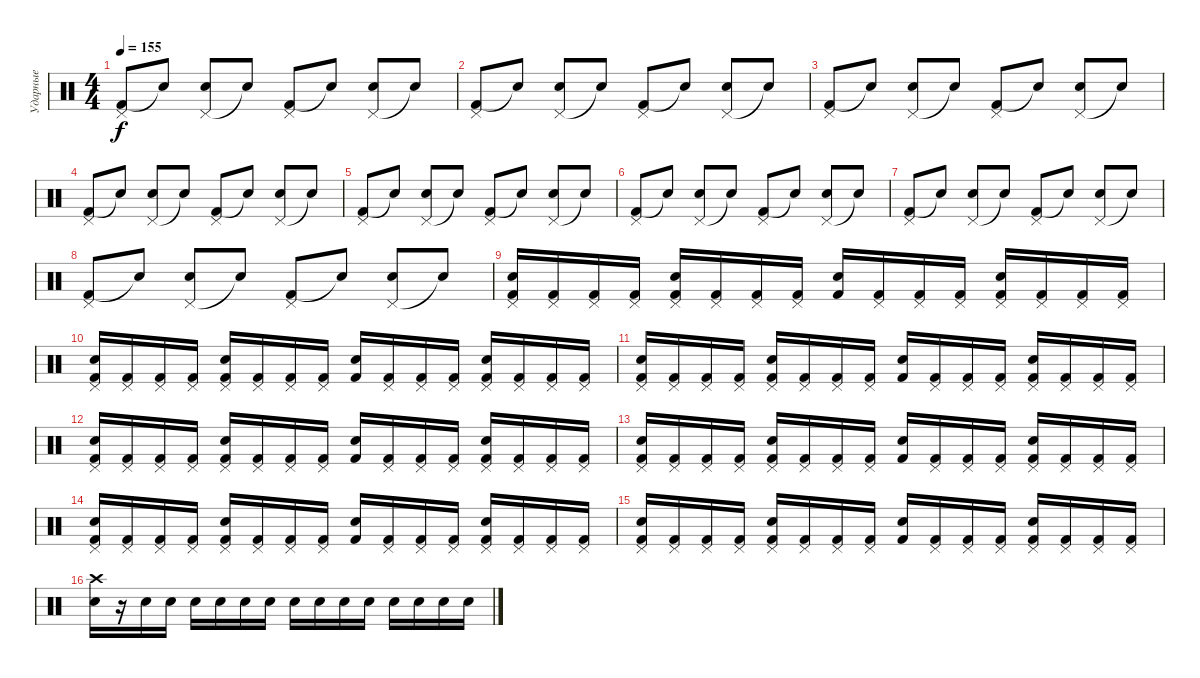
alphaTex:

\track ("Ударные" "Ударные") {instrument percussion}
\staff {score}
\articulation defaults
\ts (4 4)
\tempo 155
\clef neutral
\ks c
("Kick (hit) 2" "Pedal Hi-Hat (hit)").8{dy f} "Snare (hit)"{t}.8 ("Pedal Hi-Hat (hit)" "Snare (hit) 2").8 "Snare (hit)"{t}.8 ("Kick (hit) 2" "Pedal Hi-Hat (hit)").8 "Snare (hit)"{t}.8 ("Pedal Hi-Hat (hit)" "Snare (hit) 2").8 "Snare (hit)"{t}.8 |
("Kick (hit) 2" "Pedal Hi-Hat (hit)").8 "Snare (hit)"{t}.8 ("Pedal Hi-Hat (hit)" "Snare (hit) 2").8 "Snare (hit)"{t}.8 ("Kick (hit) 2" "Pedal Hi-Hat (hit)").8 "Snare (hit)"{t}.8 ("Pedal Hi-Hat (hit)" "Snare (hit) 2").8 "Snare (hit)"{t}.8 |
("Kick (hit) 2" "Pedal Hi-Hat (hit)").8 "Snare (hit)"{t}.8 ("Pedal Hi-Hat (hit)" "Snare (hit) 2").8 "Snare (hit)"{t}.8 ("Kick (hit) 2" "Pedal Hi-Hat (hit)").8 "Snare (hit)"{t}.8 ("Pedal Hi-Hat (hit)" "Snare (hit) 2").8 "Snare (hit)"{t}.8 |
("Kick (hit) 2" "Pedal Hi-Hat (hit)").8 "Snare (hit)"{t}.8 ("Pedal Hi-Hat (hit)" "Snare (hit) 2").8 "Snare (hit)"{t}.8 ("Kick (hit) 2" "Pedal Hi-Hat (hit)").8 "Snare (hit)"{t}.8 ("Pedal Hi-Hat (hit)" "Snare (hit) 2").8 "Snare (hit)"{t}.8 |
("Kick (hit) 2" "Pedal Hi-Hat (hit)").8 "Snare (hit)"{t}.8 ("Pedal Hi-Hat (hit)" "Snare (hit) 2").8 "Snare (hit)"{t}.8 ("Kick (hit) 2" "Pedal Hi-Hat (hit)").8 "Snare (hit)"{t}.8 ("Pedal Hi-Hat (hit)" "Snare (hit) 2").8 "Snare (hit)"{t}.8 |
("Kick (hit) 2" "Pedal Hi-Hat (hit)").8 "Snare (hit)"{t}.8 ("Pedal Hi-Hat (hit)" "Snare (hit) 2").8 "Snare (hit)"{t}.8 ("Kick (hit) 2" "Pedal Hi-Hat (hit)").8 "Snare (hit)"{t}.8 ("Pedal Hi-Hat (hit)" "Snare (hit) 2").8 "Snare (hit)"{t}.8 |
("Kick (hit) 2" "Pedal Hi-Hat (hit)").8 "Snare (hit)"{t}.8 ("Pedal Hi-Hat (hit)" "Snare (hit) 2").8 "Snare (hit)"{t}.8 ("Kick (hit) 2" "Pedal Hi-Hat (hit)").8 "Snare (hit)"{t}.8 ("Pedal Hi-Hat (hit)" "Snare (hit) 2").8 "Snare (hit)"{t}.8 |
("Kick (hit) 2" "Pedal Hi-Hat (hit)").8 "Snare (hit)"{t}.8 ("Pedal Hi-Hat (hit)" "Snare (hit) 2").8 "Snare (hit)"{t}.8 ("Kick (hit) 2" "Pedal Hi-Hat (hit)").8 "Snare (hit)"{t}.8 ("Pedal Hi-Hat (hit)" "Snare (hit) 2").8 "Snare (hit)"{t}.8 |
("Kick (hit) 2" "Pedal Hi-Hat (hit)" "Snare (hit) 2").16 ("Kick (hit) 2" "Pedal Hi-Hat (hit)").16 ("Kick (hit) 2" "Pedal Hi-Hat (hit)").16 ("Kick (hit) 2" "Pedal Hi-Hat (hit)").16 ("Kick (hit) 2" "Pedal Hi-Hat (hit)" "Snare (hit) 2").16 ("Kick (hit) 2" "Pedal Hi-Hat (hit)").16 ("Kick (hit) 2" "Pedal Hi-Hat (hit)").16 ("Kick (hit) 2" "Pedal Hi-Hat (hit)").16 ("Kick (hit) 2" "Snare (hit) 2").16 ("Kick (hit) 2" "Pedal Hi-Hat (hit)").16 ("Kick (hit) 2" "Pedal Hi-Hat (hit)").16 ("Kick (hit) 2" "Pedal Hi-Hat (hit)").16 ("Kick (hit) 2" "Pedal Hi-Hat (hit)" "Snare (hit) 2").16 ("Kick (hit) 2" "Pedal Hi-Hat (hit)").16 ("Kick (hit) 2" "Pedal Hi-Hat (hit)").16 ("Kick (hit) 2" "Pedal Hi-Hat (hit)").16 |
("Kick (hit) 2" "Pedal Hi-Hat (hit)" "Snare (hit) 2").16 ("Kick (hit) 2" "Pedal Hi-Hat (hit)").16 ("Kick (hit) 2" "Pedal Hi-Hat (hit)").16 ("Kick (hit) 2" "Pedal Hi-Hat (hit)").16 ("Kick (hit) 2" "Pedal Hi-Hat (hit)" "Snare (hit) 2").16 ("Kick (hit) 2" "Pedal Hi-Hat (hit)").16 ("Kick (hit) 2" "Pedal Hi-Hat (hit)").16 ("Kick (hit) 2" "Pedal Hi-Hat (hit)").16 ("Kick (hit) 2" "Snare (hit) 2").16 ("Kick (hit) 2" "Pedal Hi-Hat (hit)").16 ("Kick (hit) 2" "Pedal Hi-Hat (hit)").16 ("Kick (hit) 2" "Pedal Hi-Hat (hit)").16 ("Kick (hit) 2" "Pedal Hi-Hat (hit)" "Snare (hit) 2").16 ("Kick (hit) 2" "Pedal Hi-Hat (hit)").16 ("Kick (hit) 2" "Pedal Hi-Hat (hit)").16 ("Kick (hit) 2" "Pedal Hi-Hat (hit)").16 |
("Kick (hit) 2" "Pedal Hi-Hat (hit)" "Snare (hit) 2").16 ("Kick (hit) 2" "Pedal Hi-Hat (hit)").16 ("Kick (hit) 2" "Pedal Hi-Hat (hit)").16 ("Kick (hit) 2" "Pedal Hi-Hat (hit)").16 ("Kick (hit) 2" "Pedal Hi-Hat (hit)" "Snare (hit) 2").16 ("Kick (hit) 2" "Pedal Hi-Hat (hit)").16 ("Kick (hit) 2" "Pedal Hi-Hat (hit)").16 ("Kick (hit) 2" "Pedal Hi-Hat (hit)").16 ("Kick (hit) 2" "Snare (hit) 2").16 ("Kick (hit) 2" "Pedal Hi-Hat (hit)").16 ("Kick (hit) 2" "Pedal Hi-Hat (hit)").16 ("Kick (hit) 2" "Pedal Hi-Hat (hit)").16 ("Kick (hit) 2" "Pedal Hi-Hat (hit)" "Snare (hit) 2").16 ("Kick (hit) 2" "Pedal Hi-Hat (hit)").16 ("Kick (hit) 2" "Pedal Hi-Hat (hit)").16 ("Kick (hit) 2" "Pedal Hi-Hat (hit)").16 |
("Kick (hit) 2" "Pedal Hi-Hat (hit)" "Snare (hit) 2").16 ("Kick (hit) 2" "Pedal Hi-Hat (hit)").16 ("Kick (hit) 2" "Pedal Hi-Hat (hit)").16 ("Kick (hit) 2" "Pedal Hi-Hat (hit)").16 ("Kick (hit) 2" "Pedal Hi-Hat (hit)" "Snare (hit) 2").16 ("Kick (hit) 2" "Pedal Hi-Hat (hit)").16 ("Kick (hit) 2" "Pedal Hi-Hat (hit)").16 ("Kick (hit) 2" "Pedal Hi-Hat (hit)").16 ("Kick (hit) 2" "Snare (hit) 2").16 ("Kick (hit) 2" "Pedal Hi-Hat (hit)").16 ("Kick (hit) 2" "Pedal Hi-Hat (hit)").16 ("Kick (hit) 2" "Pedal Hi-Hat (hit)").16 ("Kick (hit) 2" "Pedal Hi-Hat (hit)" "Snare (hit) 2").16 ("Kick (hit) 2" "Pedal Hi-Hat (hit)").16 ("Kick (hit) 2" "Pedal Hi-Hat (hit)").16 ("Kick (hit) 2" "Pedal Hi-Hat (hit)").16 |
("Kick (hit) 2" "Pedal Hi-Hat (hit)" "Snare (hit) 2").16 ("Kick (hit) 2" "Pedal Hi-Hat (hit)").16 ("Kick (hit) 2" "Pedal Hi-Hat (hit)").16 ("Kick (hit) 2" "Pedal Hi-Hat (hit)").16 ("Kick (hit) 2" "Pedal Hi-Hat (hit)" "Snare (hit) 2").16 ("Kick (hit) 2" "Pedal Hi-Hat (hit)").16 ("Kick (hit) 2" "Pedal Hi-Hat (hit)").16 ("Kick (hit) 2" "Pedal Hi-Hat (hit)").16 ("Kick (hit) 2" "Snare (hit) 2").16 ("Kick (hit) 2" "Pedal Hi-Hat (hit)").16 ("Kick (hit) 2" "Pedal Hi-Hat (hit)").16 ("Kick (hit) 2" "Pedal Hi-Hat (hit)").16 ("Kick (hit) 2" "Pedal Hi-Hat (hit)" "Snare (hit) 2").16 ("Kick (hit) 2" "Pedal Hi-Hat (hit)").16 ("Kick (hit) 2" "Pedal Hi-Hat (hit)").16 ("Kick (hit) 2" "Pedal Hi-Hat (hit)").16 |
("Kick (hit) 2" "Pedal Hi-Hat (hit)" "Snare (hit) 2").16 ("Kick (hit) 2" "Pedal Hi-Hat (hit)").16 ("Kick (hit) 2" "Pedal Hi-Hat (hit)").16 ("Kick (hit) 2" "Pedal Hi-Hat (hit)").16 ("Kick (hit) 2" "Pedal Hi-Hat (hit)" "Snare (hit) 2").16 ("Kick (hit) 2" "Pedal Hi-Hat (hit)").16 ("Kick (hit) 2" "Pedal Hi-Hat (hit)").16 ("Kick (hit) 2" "Pedal Hi-Hat (hit)").16 ("Kick (hit) 2" "Snare (hit) 2").16 ("Kick (hit) 2" "Pedal Hi-Hat (hit)").16 ("Kick (hit) 2" "Pedal Hi-Hat (hit)").16 ("Kick (hit) 2" "Pedal Hi-Hat (hit)").16 ("Kick (hit) 2" "Pedal Hi-Hat (hit)" "Snare (hit) 2").16 ("Kick (hit) 2" "Pedal Hi-Hat (hit)").16 ("Kick (hit) 2" "Pedal Hi-Hat (hit)").16 ("Kick (hit) 2" "Pedal Hi-Hat (hit)").16 |
("Kick (hit) 2" "Pedal Hi-Hat (hit)" "Snare (hit) 2").16 ("Kick (hit) 2" "Pedal Hi-Hat (hit)").16 ("Kick (hit) 2" "Pedal Hi-Hat (hit)").16 ("Kick (hit) 2" "Pedal Hi-Hat (hit)").16 ("Kick (hit) 2" "Pedal Hi-Hat (hit)" "Snare (hit) 2").16 ("Kick (hit) 2" "Pedal Hi-Hat (hit)").16 ("Kick (hit) 2" "Pedal Hi-Hat (hit)").16 ("Kick (hit) 2" "Pedal Hi-Hat (hit)").16 ("Kick (hit) 2" "Snare (hit) 2").16 ("Kick (hit) 2" "Pedal Hi-Hat (hit)").16 ("Kick (hit) 2" "Pedal Hi-Hat (hit)").16 ("Kick (hit) 2" "Pedal Hi-Hat (hit)").16 ("Kick (hit) 2" "Pedal Hi-Hat (hit)" "Snare (hit) 2").16 ("Kick (hit) 2" "Pedal Hi-Hat (hit)").16 ("Kick (hit) 2" "Pedal Hi-Hat (hit)").16 ("Kick (hit) 2" "Pedal Hi-Hat (hit)").16 |
("Crash high (hit)" "Snare (hit) 2").16 r.16 "Snare (hit) 2".16 "Snare (hit) 2".16 "Snare (hit) 2".16 "Snare (hit) 2".16 "Snare (hit) 2".16 "Snare (hit) 2".16 "Snare (hit) 2".16 "Snare (hit) 2".16 "Snare (hit) 2".16 "Snare (hit) 2".16 "Snare (hit) 2".16 "Snare (hit) 2".16 "Snare (hit) 2".16 "Snare (hit) 2".16
